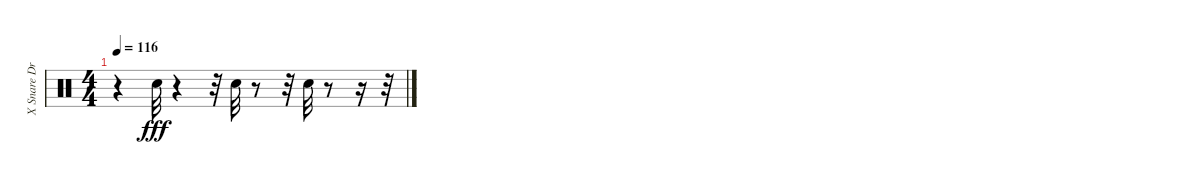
\track ("X Snare Drum        " "X Snare Dr") {instrument percussion}
\staff {score}
\articulation defaults
\ts (4 4)
\tempo 116
\clef neutral
\ks c
r.4{dy fff} "Snare (hit) 2".32 r.4 r.32 "Snare (hit) 2".32 r.8 r.32 "Snare (hit) 2".32 r.8 r.16 r.32
